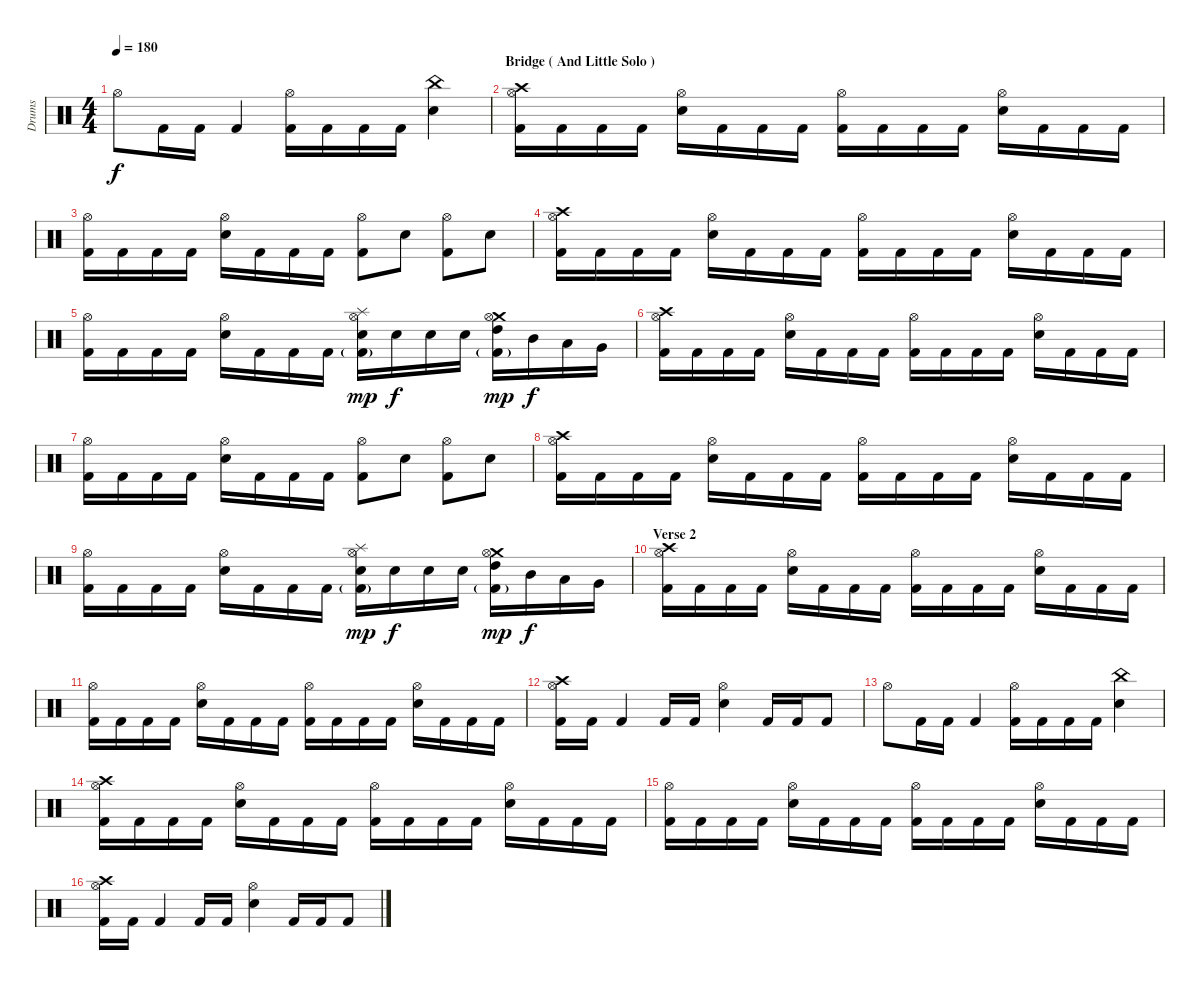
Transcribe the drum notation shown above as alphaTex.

\track ("Drums" "Drums") {instrument percussion}
\staff {score}
\articulation defaults
\ts (4 4)
\tempo 180
\clef neutral
\ks c "Hi-Hat (open)".8{dy f} "Kick (hit) 2".16 "Kick (hit) 2".16 "Kick (hit) 2".4
("Hi-Hat (open)" "Kick (hit) 2").16 "Kick (hit) 2".16 "Kick (hit) 2".16 "Kick (hit) 2".16 ("China (hit)" "Electric Snare (hit)").4 |
\section ("" "Bridge ( And Little Solo )")
("Crash high (hit)" "Hi-Hat (open)" "Kick (hit) 2").16 "Kick (hit) 2".16 "Kick (hit) 2".16 "Kick (hit) 2".16 ("Hi-Hat (open)" "Electric Snare (hit)").16 "Kick (hit) 2".16 "Kick (hit) 2".16 "Kick (hit) 2".16 ("Hi-Hat (open)" "Kick (hit) 2").16 "Kick (hit) 2".16 "Kick (hit) 2".16 "Kick (hit) 2".16 ("Hi-Hat (open)" "Electric Snare (hit)").16 "Kick (hit) 2".16 "Kick (hit) 2".16 "Kick (hit) 2".16 |
("Hi-Hat (open)" "Kick (hit) 2").16 "Kick (hit) 2".16 "Kick (hit) 2".16 "Kick (hit) 2".16 ("Hi-Hat (open)" "Electric Snare (hit)").16 "Kick (hit) 2".16 "Kick (hit) 2".16 "Kick (hit) 2".16 ("Hi-Hat (open)" "Kick (hit) 2").8 "Electric Snare (hit)".8 ("Hi-Hat (open)" "Kick (hit) 2").8 "Electric Snare (hit)".8 |
("Crash high (hit)" "Hi-Hat (open)" "Kick (hit) 2").16 "Kick (hit) 2".16 "Kick (hit) 2".16 "Kick (hit) 2".16 ("Hi-Hat (open)" "Electric Snare (hit)").16 "Kick (hit) 2".16 "Kick (hit) 2".16 "Kick (hit) 2".16 ("Hi-Hat (open)" "Kick (hit) 2").16 "Kick (hit) 2".16 "Kick (hit) 2".16 "Kick (hit) 2".16 ("Hi-Hat (open)" "Electric Snare (hit)").16 "Kick (hit) 2".16 "Kick (hit) 2".16 "Kick (hit) 2".16 |
("Hi-Hat (open)" "Kick (hit) 2").16 "Kick (hit) 2".16 "Kick (hit) 2".16 "Kick (hit) 2".16 ("Hi-Hat (open)" "Electric Snare (hit)").16 "Kick (hit) 2".16 "Kick (hit) 2".16 "Kick (hit) 2".16 ("Splash (hit)" "Hi-Hat (open)" "Electric Snare (hit)" "Kick (hit) 2"{g}).16{dy mp} "Electric Snare (hit)".16{dy f} "Electric Snare (hit)".16 "Electric Snare (hit)".16 ("Crash medium (hit)" "Hi-Hat (open)" "High Tom (hit)" "Kick (hit) 2"{g}).16{dy mp} "Mid Tom (hit)".16{dy f} "Low Tom (hit)".16 "Very Low Tom (hit)".16 |
("Crash high (hit)" "Hi-Hat (open)" "Kick (hit) 2").16 "Kick (hit) 2".16 "Kick (hit) 2".16 "Kick (hit) 2".16 ("Hi-Hat (open)" "Electric Snare (hit)").16 "Kick (hit) 2".16 "Kick (hit) 2".16 "Kick (hit) 2".16 ("Hi-Hat (open)" "Kick (hit) 2").16 "Kick (hit) 2".16 "Kick (hit) 2".16 "Kick (hit) 2".16 ("Hi-Hat (open)" "Electric Snare (hit)").16 "Kick (hit) 2".16 "Kick (hit) 2".16 "Kick (hit) 2".16 |
("Hi-Hat (open)" "Kick (hit) 2").16 "Kick (hit) 2".16 "Kick (hit) 2".16 "Kick (hit) 2".16 ("Hi-Hat (open)" "Electric Snare (hit)").16 "Kick (hit) 2".16 "Kick (hit) 2".16 "Kick (hit) 2".16 ("Hi-Hat (open)" "Kick (hit) 2").8 "Electric Snare (hit)".8 ("Hi-Hat (open)" "Kick (hit) 2").8 "Electric Snare (hit)".8 |
("Crash high (hit)" "Hi-Hat (open)" "Kick (hit) 2").16 "Kick (hit) 2".16 "Kick (hit) 2".16 "Kick (hit) 2".16 ("Hi-Hat (open)" "Electric Snare (hit)").16 "Kick (hit) 2".16 "Kick (hit) 2".16 "Kick (hit) 2".16 ("Hi-Hat (open)" "Kick (hit) 2").16 "Kick (hit) 2".16 "Kick (hit) 2".16 "Kick (hit) 2".16 ("Hi-Hat (open)" "Electric Snare (hit)").16 "Kick (hit) 2".16 "Kick (hit) 2".16 "Kick (hit) 2".16 |
("Hi-Hat (open)" "Kick (hit) 2").16 "Kick (hit) 2".16 "Kick (hit) 2".16 "Kick (hit) 2".16 ("Hi-Hat (open)" "Electric Snare (hit)").16 "Kick (hit) 2".16 "Kick (hit) 2".16 "Kick (hit) 2".16 ("Splash (hit)" "Hi-Hat (open)" "Electric Snare (hit)" "Kick (hit) 2"{g}).16{dy mp} "Electric Snare (hit)".16{dy f} "Electric Snare (hit)".16 "Electric Snare (hit)".16 ("Crash medium (hit)" "Hi-Hat (open)" "High Tom (hit)" "Kick (hit) 2"{g}).16{dy mp} "Mid Tom (hit)".16{dy f} "Low Tom (hit)".16 "Very Low Tom (hit)".16 |
\section ("" "Verse 2")
("Crash high (hit)" "Hi-Hat (open)" "Kick (hit) 2").16 "Kick (hit) 2".16 "Kick (hit) 2".16 "Kick (hit) 2".16 ("Hi-Hat (open)" "Electric Snare (hit)").16 "Kick (hit) 2".16 "Kick (hit) 2".16 "Kick (hit) 2".16 ("Hi-Hat (open)" "Kick (hit) 2").16 "Kick (hit) 2".16 "Kick (hit) 2".16 "Kick (hit) 2".16 ("Hi-Hat (open)" "Electric Snare (hit)").16 "Kick (hit) 2".16 "Kick (hit) 2".16 "Kick (hit) 2".16 |
("Hi-Hat (open)" "Kick (hit) 2").16 "Kick (hit) 2".16 "Kick (hit) 2".16 "Kick (hit) 2".16 ("Hi-Hat (open)" "Electric Snare (hit)").16 "Kick (hit) 2".16 "Kick (hit) 2".16 "Kick (hit) 2".16 ("Hi-Hat (open)" "Kick (hit) 2").16 "Kick (hit) 2".16 "Kick (hit) 2".16 "Kick (hit) 2".16 ("Hi-Hat (open)" "Electric Snare (hit)").16 "Kick (hit) 2".16 "Kick (hit) 2".16 "Kick (hit) 2".16 |
("Crash high (hit)" "Hi-Hat (open)" "Kick (hit) 2").16 "Kick (hit) 2".16 "Kick (hit) 2".4 "Kick (hit) 2".16 "Kick (hit) 2".16 ("Hi-Hat (open)" "Electric Snare (hit)").4 "Kick (hit) 2".16 "Kick (hit) 2".16 "Kick (hit) 2".8 |
"Hi-Hat (open)".8 "Kick (hit) 2".16 "Kick (hit) 2".16 "Kick (hit) 2".4 ("Hi-Hat (open)" "Kick (hit) 2").16 "Kick (hit) 2".16 "Kick (hit) 2".16 "Kick (hit) 2".16 ("China (hit)" "Electric Snare (hit)").4 |
("Crash high (hit)" "Hi-Hat (open)" "Kick (hit) 2").16 "Kick (hit) 2".16 "Kick (hit) 2".16 "Kick (hit) 2".16 ("Hi-Hat (open)" "Electric Snare (hit)").16 "Kick (hit) 2".16 "Kick (hit) 2".16 "Kick (hit) 2".16 ("Hi-Hat (open)" "Kick (hit) 2").16 "Kick (hit) 2".16 "Kick (hit) 2".16 "Kick (hit) 2".16 ("Hi-Hat (open)" "Electric Snare (hit)").16 "Kick (hit) 2".16 "Kick (hit) 2".16 "Kick (hit) 2".16 |
("Hi-Hat (open)" "Kick (hit) 2").16 "Kick (hit) 2".16 "Kick (hit) 2".16 "Kick (hit) 2".16 ("Hi-Hat (open)" "Electric Snare (hit)").16 "Kick (hit) 2".16 "Kick (hit) 2".16 "Kick (hit) 2".16 ("Hi-Hat (open)" "Kick (hit) 2").16 "Kick (hit) 2".16 "Kick (hit) 2".16 "Kick (hit) 2".16 ("Hi-Hat (open)" "Electric Snare (hit)").16 "Kick (hit) 2".16 "Kick (hit) 2".16 "Kick (hit) 2".16 |
("Crash high (hit)" "Hi-Hat (open)" "Kick (hit) 2").16 "Kick (hit) 2".16 "Kick (hit) 2".4 "Kick (hit) 2".16 "Kick (hit) 2".16 ("Hi-Hat (open)" "Electric Snare (hit)").4 "Kick (hit) 2".16 "Kick (hit) 2".16 "Kick (hit) 2".8
